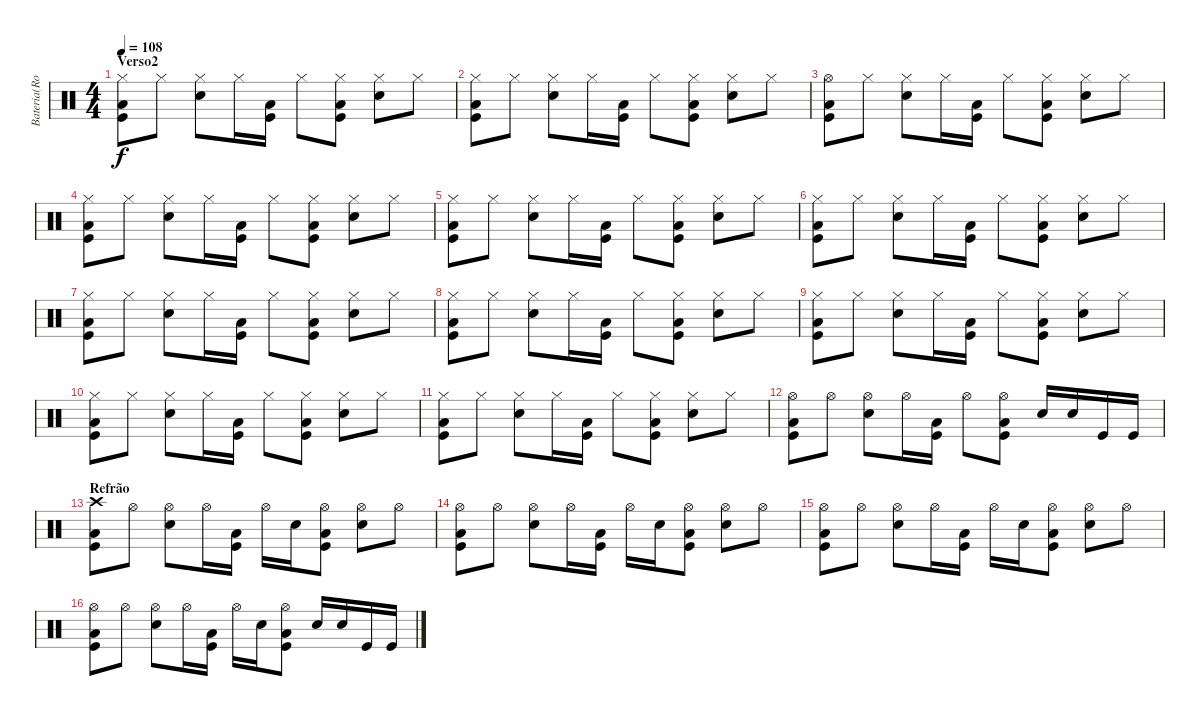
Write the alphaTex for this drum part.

\track ("Bateria(Rob)" "Bateria(Ro") {instrument percussion}
\staff {score}
\articulation defaults
\ts (4 4)
\section ("" "Verso2")
\tempo 108
\clef neutral
\ks c
("Hi-Hat (closed)" "Kick (hit)" "Low Tom (hit)").8{dy f} "Hi-Hat (closed)".8 ("Hi-Hat (closed)" "Snare (hit) 2").8 "Hi-Hat (closed)".16 ("Kick (hit)" "Low Tom (hit)").16 "Hi-Hat (closed)".8 ("Hi-Hat (closed)" "Kick (hit)" "Low Tom (hit)").8 ("Hi-Hat (closed)" "Snare (hit) 2").8 "Hi-Hat (closed)".8 |
("Hi-Hat (closed)" "Kick (hit)" "Low Tom (hit)").8 "Hi-Hat (closed)".8 ("Hi-Hat (closed)" "Snare (hit) 2").8 "Hi-Hat (closed)".16 ("Kick (hit)" "Low Tom (hit)").16 "Hi-Hat (closed)".8 ("Hi-Hat (closed)" "Kick (hit)" "Low Tom (hit)").8 ("Hi-Hat (closed)" "Snare (hit) 2").8 "Hi-Hat (closed)".8 |
("Hi-Hat (open)" "Kick (hit)" "Low Tom (hit)").8 "Hi-Hat (closed)".8 ("Hi-Hat (closed)" "Snare (hit) 2").8 "Hi-Hat (closed)".16 ("Kick (hit)" "Low Tom (hit)").16 "Hi-Hat (closed)".8 ("Hi-Hat (closed)" "Kick (hit)" "Low Tom (hit)").8 ("Hi-Hat (closed)" "Snare (hit) 2").8 "Hi-Hat (closed)".8 |
("Hi-Hat (closed)" "Kick (hit)" "Low Tom (hit)").8 "Hi-Hat (closed)".8 ("Hi-Hat (closed)" "Snare (hit) 2").8 "Hi-Hat (closed)".16 ("Kick (hit)" "Low Tom (hit)").16 "Hi-Hat (closed)".8 ("Hi-Hat (closed)" "Kick (hit)" "Low Tom (hit)").8 ("Hi-Hat (closed)" "Snare (hit) 2").8 "Hi-Hat (closed)".8 |
("Hi-Hat (closed)" "Kick (hit)" "Low Tom (hit)").8 "Hi-Hat (closed)".8 ("Hi-Hat (closed)" "Snare (hit) 2").8 "Hi-Hat (closed)".16 ("Kick (hit)" "Low Tom (hit)").16 "Hi-Hat (closed)".8 ("Hi-Hat (closed)" "Kick (hit)" "Low Tom (hit)").8 ("Hi-Hat (closed)" "Snare (hit) 2").8 "Hi-Hat (closed)".8 |
("Hi-Hat (closed)" "Kick (hit)" "Low Tom (hit)").8 "Hi-Hat (closed)".8 ("Hi-Hat (closed)" "Snare (hit) 2").8 "Hi-Hat (closed)".16 ("Kick (hit)" "Low Tom (hit)").16 "Hi-Hat (closed)".8 ("Hi-Hat (closed)" "Kick (hit)" "Low Tom (hit)").8 ("Hi-Hat (closed)" "Snare (hit) 2").8 "Hi-Hat (closed)".8 |
("Hi-Hat (closed)" "Kick (hit)" "Low Tom (hit)").8 "Hi-Hat (closed)".8 ("Hi-Hat (closed)" "Snare (hit) 2").8 "Hi-Hat (closed)".16 ("Kick (hit)" "Low Tom (hit)").16 "Hi-Hat (closed)".8 ("Hi-Hat (closed)" "Kick (hit)" "Low Tom (hit)").8 ("Hi-Hat (closed)" "Snare (hit) 2").8 "Hi-Hat (closed)".8 |
("Hi-Hat (closed)" "Kick (hit)" "Low Tom (hit)").8 "Hi-Hat (closed)".8 ("Hi-Hat (closed)" "Snare (hit) 2").8 "Hi-Hat (closed)".16 ("Kick (hit)" "Low Tom (hit)").16 "Hi-Hat (closed)".8 ("Hi-Hat (closed)" "Kick (hit)" "Low Tom (hit)").8 ("Hi-Hat (closed)" "Snare (hit) 2").8 "Hi-Hat (closed)".8 |
("Hi-Hat (closed)" "Kick (hit)" "Low Tom (hit)").8 "Hi-Hat (closed)".8 ("Hi-Hat (closed)" "Snare (hit) 2").8 "Hi-Hat (closed)".16 ("Kick (hit)" "Low Tom (hit)").16 "Hi-Hat (closed)".8 ("Hi-Hat (closed)" "Kick (hit)" "Low Tom (hit)").8 ("Hi-Hat (closed)" "Snare (hit) 2").8 "Hi-Hat (closed)".8 |
("Hi-Hat (closed)" "Kick (hit)" "Low Tom (hit)").8 "Hi-Hat (closed)".8 ("Hi-Hat (closed)" "Snare (hit) 2").8 "Hi-Hat (closed)".16 ("Kick (hit)" "Low Tom (hit)").16 "Hi-Hat (closed)".8 ("Hi-Hat (closed)" "Kick (hit)" "Low Tom (hit)").8 ("Hi-Hat (closed)" "Snare (hit) 2").8 "Hi-Hat (closed)".8 |
("Hi-Hat (closed)" "Kick (hit)" "Low Tom (hit)").8 "Hi-Hat (closed)".8 ("Hi-Hat (closed)" "Snare (hit) 2").8 "Hi-Hat (closed)".16 ("Kick (hit)" "Low Tom (hit)").16 "Hi-Hat (closed)".8 ("Hi-Hat (closed)" "Kick (hit)" "Low Tom (hit)").8 ("Hi-Hat (closed)" "Snare (hit) 2").8 "Hi-Hat (closed)".8 |
("Hi-Hat (open)" "Kick (hit)" "Low Tom (hit)").8 "Hi-Hat (open)".8 ("Hi-Hat (open)" "Snare (hit) 2").8 "Hi-Hat (open)".16 ("Kick (hit)" "Low Tom (hit)").16 "Hi-Hat (open)".8 ("Hi-Hat (open)" "Kick (hit)" "Low Tom (hit)").8 "Snare (hit) 2".16 "Snare (hit) 2".16 "Kick (hit)".16 "Kick (hit)".16 |
\section ("" "Refrão")
("Crash high (hit)" "Kick (hit)" "Low Tom (hit)").8 "Hi-Hat (open)".8 ("Hi-Hat (open)" "Snare (hit) 2").8 "Hi-Hat (open)".16 ("Kick (hit)" "Low Tom (hit)").16 "Hi-Hat (open)".16 "Snare (hit) 2".16 ("Hi-Hat (open)" "Kick (hit)" "Low Tom (hit)").8 ("Hi-Hat (open)" "Snare (hit) 2").8 "Hi-Hat (open)".8 |
("Hi-Hat (open)" "Kick (hit)" "Low Tom (hit)").8 "Hi-Hat (open)".8 ("Hi-Hat (open)" "Snare (hit) 2").8 "Hi-Hat (open)".16 ("Kick (hit)" "Low Tom (hit)").16 "Hi-Hat (open)".16 "Snare (hit) 2".16 ("Hi-Hat (open)" "Kick (hit)" "Low Tom (hit)").8 ("Hi-Hat (open)" "Snare (hit) 2").8 "Hi-Hat (open)".8 |
("Hi-Hat (open)" "Kick (hit)" "Low Tom (hit)").8 "Hi-Hat (open)".8 ("Hi-Hat (open)" "Snare (hit) 2").8 "Hi-Hat (open)".16 ("Kick (hit)" "Low Tom (hit)").16 "Hi-Hat (open)".16 "Snare (hit) 2".16 ("Hi-Hat (open)" "Kick (hit)" "Low Tom (hit)").8 ("Hi-Hat (open)" "Snare (hit) 2").8 "Hi-Hat (open)".8 |
("Hi-Hat (open)" "Kick (hit)" "Low Tom (hit)").8 "Hi-Hat (open)".8 ("Hi-Hat (open)" "Snare (hit) 2").8 "Hi-Hat (open)".16 ("Kick (hit)" "Low Tom (hit)").16 "Hi-Hat (open)".16 "Snare (hit) 2".16 ("Hi-Hat (open)" "Kick (hit)" "Low Tom (hit)").8 "Snare (hit) 2".16 "Snare (hit) 2".16 "Kick (hit)".16 "Kick (hit)".16
